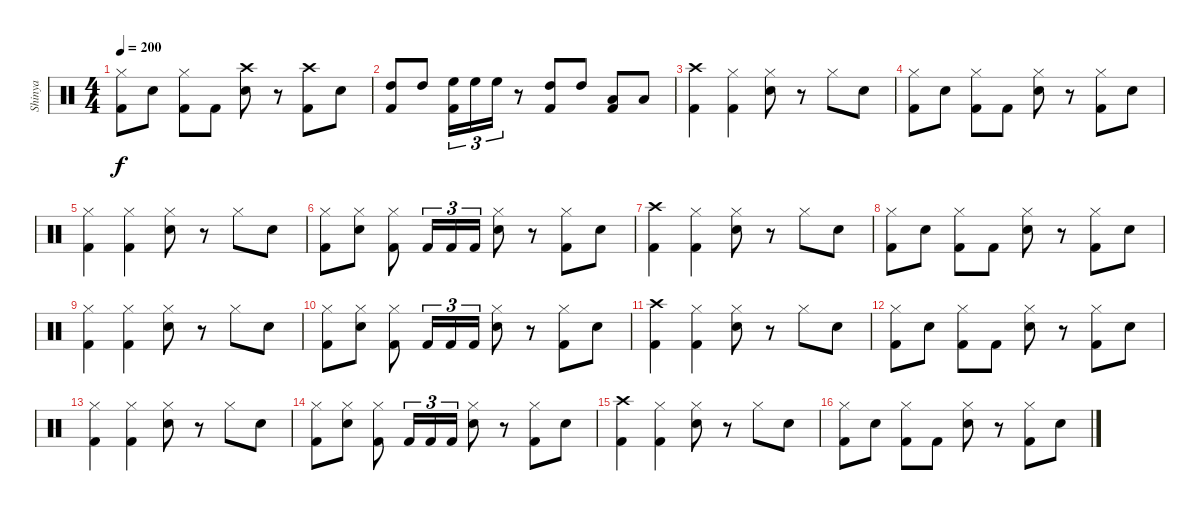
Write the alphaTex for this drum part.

\track ("Shinya" "Shinya") {instrument percussion}
\staff {score}
\articulation defaults
\ts (4 4)
\tempo 200
\clef neutral
\ks c
("Hi-Hat (closed)" "Kick (hit) 2").8{dy f} "Electric Snare (hit)".8 ("Hi-Hat (closed)" "Kick (hit) 2").8 "Kick (hit) 2".8 ("Crash high (hit)" "Electric Snare (hit)").8 r.8 ("Crash high (hit)" "Kick (hit) 2").8 "Electric Snare (hit)".8 |
("High Tom (hit)" "Kick (hit) 2").8 "High Tom (hit)".8 ("High Floor Tom (hit)" "Kick (hit) 2").16{tu (3 2)} "High Floor Tom (hit)".16{tu (3 2)} "High Floor Tom (hit)".16{tu (3 2)} r.8 ("High Tom (hit)" "Kick (hit) 2").8 "High Tom (hit)".8 ("Low Tom (hit)" "Kick (hit) 2").8 "Low Tom (hit)".8 |
("Crash high (hit)" "Kick (hit) 2").4 ("Hi-Hat (closed)" "Kick (hit) 2").4 ("Hi-Hat (closed)" "Electric Snare (hit)").8 r.8 "Hi-Hat (closed)".8 "Electric Snare (hit)".8 |
("Hi-Hat (closed)" "Kick (hit) 2").8 "Electric Snare (hit)".8 ("Hi-Hat (closed)" "Kick (hit) 2").8 "Kick (hit) 2".8 ("Hi-Hat (closed)" "Electric Snare (hit)").8 r.8 ("Hi-Hat (closed)" "Kick (hit) 2").8 "Electric Snare (hit)".8 |
("Hi-Hat (closed)" "Kick (hit) 2").4 ("Hi-Hat (closed)" "Kick (hit) 2").4 ("Hi-Hat (closed)" "Electric Snare (hit)").8 r.8 "Hi-Hat (closed)".8 "Electric Snare (hit)".8 |
("Hi-Hat (closed)" "Kick (hit) 2").8 ("Hi-Hat (closed)" "Electric Snare (hit)").8 ("Hi-Hat (closed)" "Kick (hit) 2").8 "Kick (hit) 2".16{tu (3 2)} "Kick (hit) 2".16{tu (3 2)} "Kick (hit) 2".16{tu (3 2)} ("Hi-Hat (closed)" "Electric Snare (hit)").8 r.8 ("Hi-Hat (closed)" "Kick (hit) 2").8 "Electric Snare (hit)".8 |
("Crash high (hit)" "Kick (hit) 2").4 ("Hi-Hat (closed)" "Kick (hit) 2").4 ("Hi-Hat (closed)" "Electric Snare (hit)").8 r.8 "Hi-Hat (closed)".8 "Electric Snare (hit)".8 |
("Hi-Hat (closed)" "Kick (hit) 2").8 "Electric Snare (hit)".8 ("Hi-Hat (closed)" "Kick (hit) 2").8 "Kick (hit) 2".8 ("Hi-Hat (closed)" "Electric Snare (hit)").8 r.8 ("Hi-Hat (closed)" "Kick (hit) 2").8 "Electric Snare (hit)".8 |
("Hi-Hat (closed)" "Kick (hit) 2").4 ("Hi-Hat (closed)" "Kick (hit) 2").4 ("Hi-Hat (closed)" "Electric Snare (hit)").8 r.8 "Hi-Hat (closed)".8 "Electric Snare (hit)".8 |
("Hi-Hat (closed)" "Kick (hit) 2").8 ("Hi-Hat (closed)" "Electric Snare (hit)").8 ("Hi-Hat (closed)" "Kick (hit) 2").8 "Kick (hit) 2".16{tu (3 2)} "Kick (hit) 2".16{tu (3 2)} "Kick (hit) 2".16{tu (3 2)} ("Hi-Hat (closed)" "Electric Snare (hit)").8 r.8 ("Hi-Hat (closed)" "Kick (hit) 2").8 "Electric Snare (hit)".8 |
("Crash high (hit)" "Kick (hit) 2").4 ("Hi-Hat (closed)" "Kick (hit) 2").4 ("Hi-Hat (closed)" "Electric Snare (hit)").8 r.8 "Hi-Hat (closed)".8 "Electric Snare (hit)".8 |
("Hi-Hat (closed)" "Kick (hit) 2").8 "Electric Snare (hit)".8 ("Hi-Hat (closed)" "Kick (hit) 2").8 "Kick (hit) 2".8 ("Hi-Hat (closed)" "Electric Snare (hit)").8 r.8 ("Hi-Hat (closed)" "Kick (hit) 2").8 "Electric Snare (hit)".8 |
("Hi-Hat (closed)" "Kick (hit) 2").4 ("Hi-Hat (closed)" "Kick (hit) 2").4 ("Hi-Hat (closed)" "Electric Snare (hit)").8 r.8 "Hi-Hat (closed)".8 "Electric Snare (hit)".8 |
("Hi-Hat (closed)" "Kick (hit) 2").8 ("Hi-Hat (closed)" "Electric Snare (hit)").8 ("Hi-Hat (closed)" "Kick (hit) 2").8 "Kick (hit) 2".16{tu (3 2)} "Kick (hit) 2".16{tu (3 2)} "Kick (hit) 2".16{tu (3 2)} ("Hi-Hat (closed)" "Electric Snare (hit)").8 r.8 ("Hi-Hat (closed)" "Kick (hit) 2").8 "Electric Snare (hit)".8 |
("Crash high (hit)" "Kick (hit) 2").4 ("Hi-Hat (closed)" "Kick (hit) 2").4 ("Hi-Hat (closed)" "Electric Snare (hit)").8 r.8 "Hi-Hat (closed)".8 "Electric Snare (hit)".8 |
("Hi-Hat (closed)" "Kick (hit) 2").8 "Electric Snare (hit)".8 ("Hi-Hat (closed)" "Kick (hit) 2").8 "Kick (hit) 2".8 ("Hi-Hat (closed)" "Electric Snare (hit)").8 r.8 ("Hi-Hat (closed)" "Kick (hit) 2").8 "Electric Snare (hit)".8
